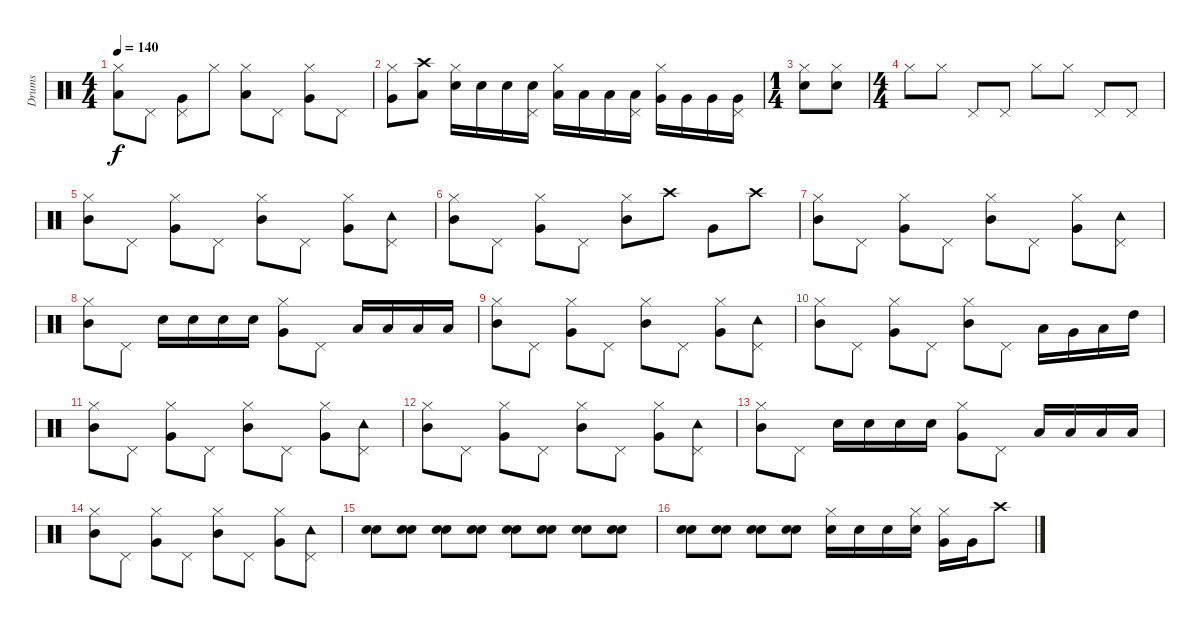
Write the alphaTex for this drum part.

\track ("Drums" "Drums") {instrument percussion}
\staff {score}
\articulation defaults
\ts (4 4)
\tempo 140
\clef neutral
\ks c
("Low Floor Tom (hit)" "Hi-Hat (closed)").8{dy f} "Pedal Hi-Hat (hit)".8 ("Very Low Tom (hit)" "Pedal Hi-Hat (hit)").8 "Hi-Hat (closed)".8 ("Low Floor Tom (hit)" "Hi-Hat (closed)").8 "Pedal Hi-Hat (hit)".8 ("Very Low Tom (hit)" "Hi-Hat (closed)").8 "Pedal Hi-Hat (hit)".8 |
("Very Low Tom (hit)" "Hi-Hat (closed)").8 ("Low Floor Tom (hit)" "Crash high (hit)").8 ("Hi-Hat (closed)" "Electric Snare (hit)").16 "Electric Snare (hit)".16 "Electric Snare (hit)".16 ("Pedal Hi-Hat (hit)" "Electric Snare (hit)").16 ("Hi-Hat (closed)" "Low Floor Tom (hit)").16 "Low Floor Tom (hit)".16 "Low Floor Tom (hit)".16 ("Pedal Hi-Hat (hit)" "Low Floor Tom (hit)").16 ("Hi-Hat (closed)" "Very Low Tom (hit)").16 "Very Low Tom (hit)".16 "Very Low Tom (hit)".16 ("Pedal Hi-Hat (hit)" "Very Low Tom (hit)").16 |
\ts (1 4)
("Snare (hit) 2" "Hi-Hat (closed)").8 ("Electric Snare (hit)" "Hi-Hat (closed)").8 |
\ts (4 4)
"Hi-Hat (closed)".8 "Hi-Hat (closed)".8 "Pedal Hi-Hat (hit)".8 "Pedal Hi-Hat (hit)".8 "Hi-Hat (closed)".8 "Hi-Hat (closed)".8 "Pedal Hi-Hat (hit)".8 "Pedal Hi-Hat (hit)".8 |
("Mid Tom (hit)" "Hi-Hat (closed)").8 "Pedal Hi-Hat (hit)".8 ("Very Low Tom (hit)" "Hi-Hat (closed)").8 "Pedal Hi-Hat (hit)".8 ("Mid Tom (hit)" "Hi-Hat (closed)").8 "Pedal Hi-Hat (hit)".8 ("Very Low Tom (hit)" "Hi-Hat (closed)").8 ("Tambourine (hit)" "Pedal Hi-Hat (hit)").8 |
("Mid Tom (hit)" "Hi-Hat (closed)").8 "Pedal Hi-Hat (hit)".8 ("Very Low Tom (hit)" "Hi-Hat (closed)").8 "Pedal Hi-Hat (hit)".8 ("Mid Tom (hit)" "Hi-Hat (closed)").8 "Crash high (hit)".8 "Very Low Tom (hit)".8 "Crash high (hit)".8 |
("Mid Tom (hit)" "Hi-Hat (closed)").8 "Pedal Hi-Hat (hit)".8 ("Very Low Tom (hit)" "Hi-Hat (closed)").8 "Pedal Hi-Hat (hit)".8 ("Mid Tom (hit)" "Hi-Hat (closed)").8 "Pedal Hi-Hat (hit)".8 ("Very Low Tom (hit)" "Hi-Hat (closed)").8 ("Tambourine (hit)" "Pedal Hi-Hat (hit)").8 |
("Mid Tom (hit)" "Hi-Hat (closed)").8 "Pedal Hi-Hat (hit)".8 "Electric Snare (hit)".16 "Electric Snare (hit)".16 "Electric Snare (hit)".16 "Electric Snare (hit)".16 ("Very Low Tom (hit)" "Hi-Hat (closed)").8 "Pedal Hi-Hat (hit)".8 "Low Floor Tom (hit)".16 "Low Floor Tom (hit)".16 "Low Floor Tom (hit)".16 "Low Floor Tom (hit)".16 |
("Mid Tom (hit)" "Hi-Hat (closed)").8 "Pedal Hi-Hat (hit)".8 ("Very Low Tom (hit)" "Hi-Hat (closed)").8 "Pedal Hi-Hat (hit)".8 ("Mid Tom (hit)" "Hi-Hat (closed)").8 "Pedal Hi-Hat (hit)".8 ("Very Low Tom (hit)" "Hi-Hat (closed)").8 ("Tambourine (hit)" "Pedal Hi-Hat (hit)").8 |
("Mid Tom (hit)" "Hi-Hat (closed)").8 "Pedal Hi-Hat (hit)".8 ("Very Low Tom (hit)" "Hi-Hat (closed)").8 "Pedal Hi-Hat (hit)".8 ("Mid Tom (hit)" "Hi-Hat (closed)").8 "Pedal Hi-Hat (hit)".8 "Low Floor Tom (hit)".16 "Very Low Tom (hit)".16 "Low Tom (hit)".16 "High Tom (hit)".16 |
("Mid Tom (hit)" "Hi-Hat (closed)").8 "Pedal Hi-Hat (hit)".8 ("Very Low Tom (hit)" "Hi-Hat (closed)").8 "Pedal Hi-Hat (hit)".8 ("Mid Tom (hit)" "Hi-Hat (closed)").8 "Pedal Hi-Hat (hit)".8 ("Very Low Tom (hit)" "Hi-Hat (closed)").8 ("Tambourine (hit)" "Pedal Hi-Hat (hit)").8 |
("Mid Tom (hit)" "Hi-Hat (closed)").8 "Pedal Hi-Hat (hit)".8 ("Very Low Tom (hit)" "Hi-Hat (closed)").8 "Pedal Hi-Hat (hit)".8 ("Mid Tom (hit)" "Hi-Hat (closed)").8 "Pedal Hi-Hat (hit)".8 ("Very Low Tom (hit)" "Hi-Hat (closed)").8 ("Tambourine (hit)" "Pedal Hi-Hat (hit)").8 |
("Mid Tom (hit)" "Hi-Hat (closed)").8 "Pedal Hi-Hat (hit)".8 "Electric Snare (hit)".16 "Electric Snare (hit)".16 "Electric Snare (hit)".16 "Electric Snare (hit)".16 ("Very Low Tom (hit)" "Hi-Hat (closed)").8 "Pedal Hi-Hat (hit)".8 "Low Floor Tom (hit)".16 "Low Floor Tom (hit)".16 "Low Floor Tom (hit)".16 "Low Floor Tom (hit)".16 |
("Mid Tom (hit)" "Hi-Hat (closed)").8 "Pedal Hi-Hat (hit)".8 ("Very Low Tom (hit)" "Hi-Hat (closed)").8 "Pedal Hi-Hat (hit)".8 ("Mid Tom (hit)" "Hi-Hat (closed)").8 "Pedal Hi-Hat (hit)".8 ("Very Low Tom (hit)" "Hi-Hat (closed)").8 ("Tambourine (hit)" "Pedal Hi-Hat (hit)").8 |
("Snare (hit) 2" "Electric Snare (hit)").8{volume 6} ("Snare (hit) 2" "Electric Snare (hit)").8{volume 7} ("Snare (hit) 2" "Electric Snare (hit)").8{volume 8} ("Snare (hit) 2" "Electric Snare (hit)").8{volume 9} ("Snare (hit) 2" "Electric Snare (hit)").8{volume 10} ("Snare (hit) 2" "Electric Snare (hit)").8 ("Snare (hit) 2" "Electric Snare (hit)").8 ("Snare (hit) 2" "Electric Snare (hit)").8 |
("Hand Clap (hit)" "Electric Snare (hit)").8 ("Hand Clap (hit)" "Electric Snare (hit)").8 ("Hand Clap (hit)" "Electric Snare (hit)").8 ("Hand Clap (hit)" "Electric Snare (hit)").8 ("Hi-Hat (closed)" "Electric Snare (hit)").16 "Electric Snare (hit)".16 "Electric Snare (hit)".16 ("Hi-Hat (closed)" "Electric Snare (hit)").16 ("Hi-Hat (closed)" "Very Low Tom (hit)").16 "Very Low Tom (hit)".16 "Crash high (hit)".8
